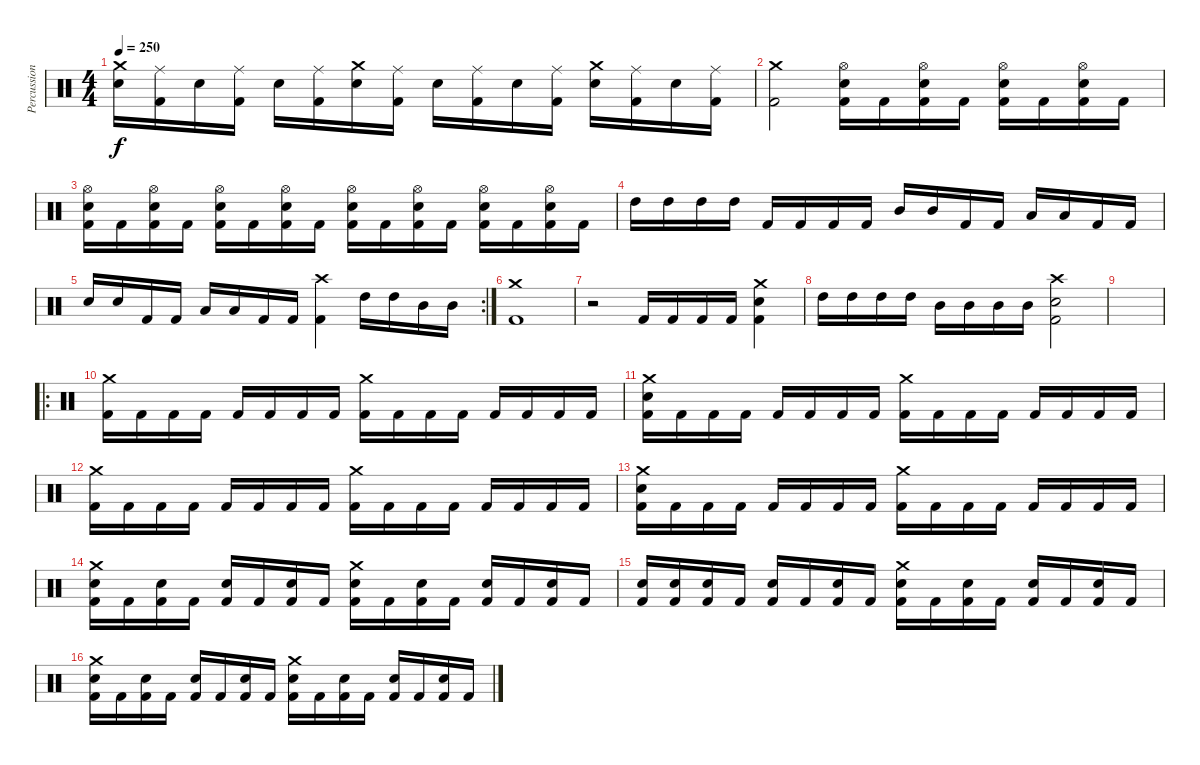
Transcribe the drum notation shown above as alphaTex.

\track ("Percussion" "Percussion") {instrument percussion}
\staff {score}
\articulation defaults
\ts (4 4)
\tempo 250
\clef neutral
\ks c
("Crash medium (hit)" "Electric Snare (hit)").16{dy f} ("Ride (middle)" "Kick (hit) 2").16 "Electric Snare (hit)".16 ("Ride (middle)" "Kick (hit) 2").16 "Electric Snare (hit)".16 ("Ride (middle)" "Kick (hit) 2").16 ("Crash medium (hit)" "Electric Snare (hit)").16 ("Ride (middle)" "Kick (hit) 2").16 "Electric Snare (hit)".16 ("Ride (middle)" "Kick (hit) 2").16 "Electric Snare (hit)".16 ("Ride (middle)" "Kick (hit) 2").16 ("Crash medium (hit)" "Electric Snare (hit)").16 ("Ride (middle)" "Kick (hit) 2").16 "Electric Snare (hit)".16 ("Ride (middle)" "Kick (hit) 2").16 |
("Crash medium (hit)" "Kick (hit) 2").2 ("Hi-Hat (open)" "Electric Snare (hit)" "Kick (hit) 2").16 "Kick (hit) 2".16 ("Hi-Hat (open)" "Electric Snare (hit)" "Kick (hit) 2").16 "Kick (hit) 2".16 ("Hi-Hat (open)" "Electric Snare (hit)" "Kick (hit) 2").16 "Kick (hit) 2".16 ("Hi-Hat (open)" "Electric Snare (hit)" "Kick (hit) 2").16 "Kick (hit) 2".16 |
("Hi-Hat (open)" "Electric Snare (hit)" "Kick (hit) 2").16 "Kick (hit) 2".16 ("Hi-Hat (open)" "Electric Snare (hit)" "Kick (hit) 2").16 "Kick (hit) 2".16 ("Hi-Hat (open)" "Electric Snare (hit)" "Kick (hit) 2").16 "Kick (hit) 2".16 ("Hi-Hat (open)" "Electric Snare (hit)" "Kick (hit) 2").16 "Kick (hit) 2".16 ("Hi-Hat (open)" "Electric Snare (hit)" "Kick (hit) 2").16 "Kick (hit) 2".16 ("Hi-Hat (open)" "Electric Snare (hit)" "Kick (hit) 2").16 "Kick (hit) 2".16 ("Hi-Hat (open)" "Electric Snare (hit)" "Kick (hit) 2").16 "Kick (hit) 2".16 ("Hi-Hat (open)" "Electric Snare (hit)" "Kick (hit) 2").16 "Kick (hit) 2".16 |
"High Tom (hit)".16 "High Tom (hit)".16 "High Tom (hit)".16 "High Tom (hit)".16 "Kick (hit) 2".16 "Kick (hit) 2".16 "Kick (hit) 2".16 "Kick (hit) 2".16 "Mid Tom (hit)".16 "Mid Tom (hit)".16 "Kick (hit) 2".16 "Kick (hit) 2".16 "Low Tom (hit)".16 "Low Tom (hit)".16 "Kick (hit) 2".16 "Kick (hit) 2".16 |
\rc 2 "Electric Snare (hit)".16 "Electric Snare (hit)".16 "Kick (hit) 2".16 "Kick (hit) 2".16 "Low Tom (hit)".16 "Low Tom (hit)".16 "Kick (hit) 2".16 "Kick (hit) 2".16
("Crash high (hit)" "Kick (hit) 2").4 "High Tom (hit)".16 "High Tom (hit)".16 "Mid Tom (hit)".16 "Mid Tom (hit)".16 |
("Crash medium (hit)" "Kick (hit) 2").1 |
r.2 "Kick (hit) 2".16 "Kick (hit) 2".16 "Kick (hit) 2".16 "Kick (hit) 2".16 ("Crash medium (hit)" "Electric Snare (hit)" "Kick (hit) 2").4 |
"High Tom (hit)".16 "High Tom (hit)".16 "High Tom (hit)".16 "High Tom (hit)".16 "Mid Tom (hit)".16 "Mid Tom (hit)".16 "Mid Tom (hit)".16 "Mid Tom (hit)".16 ("Crash high (hit)" "Electric Snare (hit)" "Kick (hit) 2").2 |
|
\ro
("Crash medium (hit)" "Kick (hit) 2").16 "Kick (hit) 2".16 "Kick (hit) 2".16 "Kick (hit) 2".16 "Kick (hit) 2".16 "Kick (hit) 2".16 "Kick (hit) 2".16 "Kick (hit) 2".16 ("Crash medium (hit)" "Kick (hit) 2").16 "Kick (hit) 2".16 "Kick (hit) 2".16 "Kick (hit) 2".16 "Kick (hit) 2".16 "Kick (hit) 2".16 "Kick (hit) 2".16 "Kick (hit) 2".16 |
("Crash medium (hit)" "Electric Snare (hit)" "Kick (hit) 2").16 "Kick (hit) 2".16 "Kick (hit) 2".16 "Kick (hit) 2".16 "Kick (hit) 2".16 "Kick (hit) 2".16 "Kick (hit) 2".16 "Kick (hit) 2".16 ("Crash medium (hit)" "Kick (hit) 2").16 "Kick (hit) 2".16 "Kick (hit) 2".16 "Kick (hit) 2".16 "Kick (hit) 2".16 "Kick (hit) 2".16 "Kick (hit) 2".16 "Kick (hit) 2".16 |
("Crash medium (hit)" "Kick (hit) 2").16 "Kick (hit) 2".16 "Kick (hit) 2".16 "Kick (hit) 2".16 "Kick (hit) 2".16 "Kick (hit) 2".16 "Kick (hit) 2".16 "Kick (hit) 2".16 ("Crash medium (hit)" "Kick (hit) 2").16 "Kick (hit) 2".16 "Kick (hit) 2".16 "Kick (hit) 2".16 "Kick (hit) 2".16 "Kick (hit) 2".16 "Kick (hit) 2".16 "Kick (hit) 2".16 |
("Crash medium (hit)" "Electric Snare (hit)" "Kick (hit) 2").16 "Kick (hit) 2".16 "Kick (hit) 2".16 "Kick (hit) 2".16 "Kick (hit) 2".16 "Kick (hit) 2".16 "Kick (hit) 2".16 "Kick (hit) 2".16 ("Crash medium (hit)" "Kick (hit) 2").16 "Kick (hit) 2".16 "Kick (hit) 2".16 "Kick (hit) 2".16 "Kick (hit) 2".16 "Kick (hit) 2".16 "Kick (hit) 2".16 "Kick (hit) 2".16 |
("Crash medium (hit)" "Electric Snare (hit)" "Kick (hit) 2").16 "Kick (hit) 2".16 ("Electric Snare (hit)" "Kick (hit) 2").16 "Kick (hit) 2".16 ("Electric Snare (hit)" "Kick (hit) 2").16 "Kick (hit) 2".16 ("Electric Snare (hit)" "Kick (hit) 2").16 "Kick (hit) 2".16 ("Crash medium (hit)" "Electric Snare (hit)" "Kick (hit) 2").16 "Kick (hit) 2".16 ("Electric Snare (hit)" "Kick (hit) 2").16 "Kick (hit) 2".16 ("Electric Snare (hit)" "Kick (hit) 2").16 "Kick (hit) 2".16 ("Electric Snare (hit)" "Kick (hit) 2").16 "Kick (hit) 2".16 |
("Electric Snare (hit)" "Kick (hit) 2").16 ("Electric Snare (hit)" "Kick (hit) 2").16 ("Electric Snare (hit)" "Kick (hit) 2").16 "Kick (hit) 2".16 ("Electric Snare (hit)" "Kick (hit) 2").16 "Kick (hit) 2".16 ("Electric Snare (hit)" "Kick (hit) 2").16 "Kick (hit) 2".16 ("Crash medium (hit)" "Electric Snare (hit)" "Kick (hit) 2").16 "Kick (hit) 2".16 ("Electric Snare (hit)" "Kick (hit) 2").16 "Kick (hit) 2".16 ("Electric Snare (hit)" "Kick (hit) 2").16 "Kick (hit) 2".16 ("Electric Snare (hit)" "Kick (hit) 2").16 "Kick (hit) 2".16 |
("Crash medium (hit)" "Electric Snare (hit)" "Kick (hit) 2").16 "Kick (hit) 2".16 ("Electric Snare (hit)" "Kick (hit) 2").16 "Kick (hit) 2".16 ("Electric Snare (hit)" "Kick (hit) 2").16 "Kick (hit) 2".16 ("Electric Snare (hit)" "Kick (hit) 2").16 "Kick (hit) 2".16 ("Crash medium (hit)" "Electric Snare (hit)" "Kick (hit) 2").16 "Kick (hit) 2".16 ("Electric Snare (hit)" "Kick (hit) 2").16 "Kick (hit) 2".16 ("Electric Snare (hit)" "Kick (hit) 2").16 "Kick (hit) 2".16 ("Electric Snare (hit)" "Kick (hit) 2").16 "Kick (hit) 2".16
